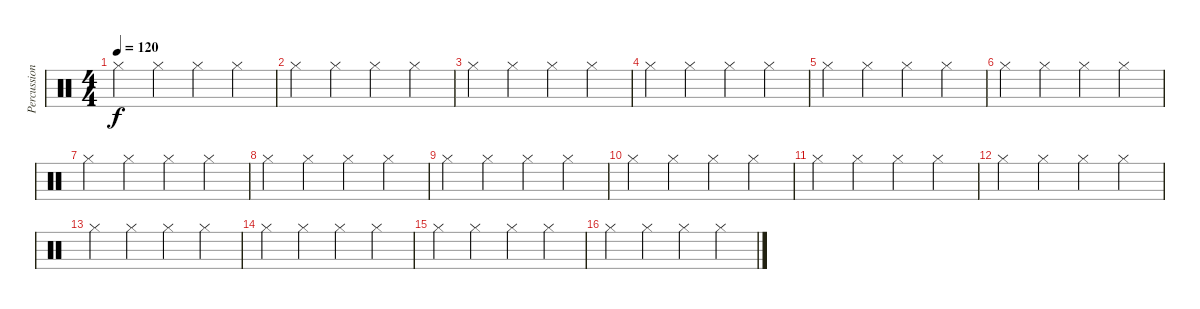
\track ("Percussioni" "Percussion") {instrument percussion}
\staff {score}
\articulation defaults
\ts (4 4)
\tempo 120
\clef neutral
\ks c "Hi-Hat (closed)".4{dy f} "Hi-Hat (closed)".4 "Hi-Hat (closed)".4 "Hi-Hat (closed)".4
|
"Hi-Hat (closed)".4 "Hi-Hat (closed)".4 "Hi-Hat (closed)".4 "Hi-Hat (closed)".4 |
"Hi-Hat (closed)".4 "Hi-Hat (closed)".4 "Hi-Hat (closed)".4 "Hi-Hat (closed)".4 |
"Hi-Hat (closed)".4 "Hi-Hat (closed)".4 "Hi-Hat (closed)".4 "Hi-Hat (closed)".4 |
"Hi-Hat (closed)".4 "Hi-Hat (closed)".4 "Hi-Hat (closed)".4 "Hi-Hat (closed)".4 |
"Hi-Hat (closed)".4 "Hi-Hat (closed)".4 "Hi-Hat (closed)".4 "Hi-Hat (closed)".4 |
"Hi-Hat (closed)".4 "Hi-Hat (closed)".4 "Hi-Hat (closed)".4 "Hi-Hat (closed)".4 |
"Hi-Hat (closed)".4 "Hi-Hat (closed)".4 "Hi-Hat (closed)".4 "Hi-Hat (closed)".4 |
"Hi-Hat (closed)".4 "Hi-Hat (closed)".4 "Hi-Hat (closed)".4 "Hi-Hat (closed)".4 |
"Hi-Hat (closed)".4 "Hi-Hat (closed)".4 "Hi-Hat (closed)".4 "Hi-Hat (closed)".4 |
"Hi-Hat (closed)".4 "Hi-Hat (closed)".4 "Hi-Hat (closed)".4 "Hi-Hat (closed)".4 |
"Hi-Hat (closed)".4 "Hi-Hat (closed)".4 "Hi-Hat (closed)".4 "Hi-Hat (closed)".4 |
"Hi-Hat (closed)".4 "Hi-Hat (closed)".4 "Hi-Hat (closed)".4 "Hi-Hat (closed)".4 |
"Hi-Hat (closed)".4 "Hi-Hat (closed)".4 "Hi-Hat (closed)".4 "Hi-Hat (closed)".4 |
"Hi-Hat (closed)".4 "Hi-Hat (closed)".4 "Hi-Hat (closed)".4 "Hi-Hat (closed)".4 |
"Hi-Hat (closed)".4 "Hi-Hat (closed)".4 "Hi-Hat (closed)".4 "Hi-Hat (closed)".4
